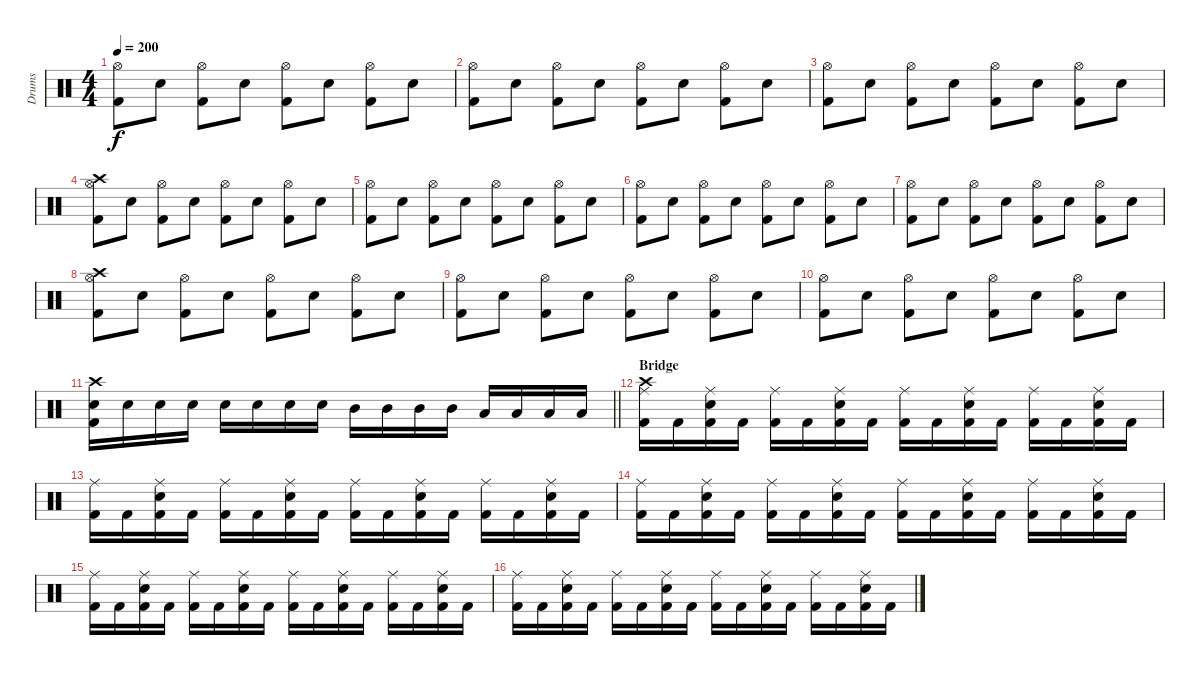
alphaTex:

\track ("Drums" "Drums") {instrument percussion}
\staff {score}
\articulation defaults
\ts (4 4)
\tempo 200
\clef neutral
\ks c
("Hi-Hat (open)" "Kick (hit) 2").8{dy f} "Snare (hit) 2".8 ("Hi-Hat (open)" "Kick (hit) 2").8 "Snare (hit) 2".8 ("Hi-Hat (open)" "Kick (hit) 2").8 "Snare (hit) 2".8 ("Hi-Hat (open)" "Kick (hit) 2").8 "Snare (hit) 2".8 |
("Hi-Hat (open)" "Kick (hit) 2").8 "Snare (hit) 2".8 ("Hi-Hat (open)" "Kick (hit) 2").8 "Snare (hit) 2".8 ("Hi-Hat (open)" "Kick (hit) 2").8 "Snare (hit) 2".8 ("Hi-Hat (open)" "Kick (hit) 2").8 "Snare (hit) 2".8 |
("Hi-Hat (open)" "Kick (hit) 2").8 "Snare (hit) 2".8 ("Hi-Hat (open)" "Kick (hit) 2").8 "Snare (hit) 2".8 ("Hi-Hat (open)" "Kick (hit) 2").8 "Snare (hit) 2".8 ("Hi-Hat (open)" "Kick (hit) 2").8 "Snare (hit) 2".8 |
("Crash high (hit)" "Hi-Hat (open)" "Kick (hit) 2").8 "Snare (hit) 2".8 ("Hi-Hat (open)" "Kick (hit) 2").8 "Snare (hit) 2".8 ("Hi-Hat (open)" "Kick (hit) 2").8 "Snare (hit) 2".8 ("Hi-Hat (open)" "Kick (hit) 2").8 "Snare (hit) 2".8 |
("Hi-Hat (open)" "Kick (hit) 2").8 "Snare (hit) 2".8 ("Hi-Hat (open)" "Kick (hit) 2").8 "Snare (hit) 2".8 ("Hi-Hat (open)" "Kick (hit) 2").8 "Snare (hit) 2".8 ("Hi-Hat (open)" "Kick (hit) 2").8 "Snare (hit) 2".8 |
("Hi-Hat (open)" "Kick (hit) 2").8 "Snare (hit) 2".8 ("Hi-Hat (open)" "Kick (hit) 2").8 "Snare (hit) 2".8 ("Hi-Hat (open)" "Kick (hit) 2").8 "Snare (hit) 2".8 ("Hi-Hat (open)" "Kick (hit) 2").8 "Snare (hit) 2".8 |
("Hi-Hat (open)" "Kick (hit) 2").8 "Snare (hit) 2".8 ("Hi-Hat (open)" "Kick (hit) 2").8 "Snare (hit) 2".8 ("Hi-Hat (open)" "Kick (hit) 2").8 "Snare (hit) 2".8 ("Hi-Hat (open)" "Kick (hit) 2").8 "Snare (hit) 2".8 |
("Crash high (hit)" "Hi-Hat (open)" "Kick (hit) 2").8 "Snare (hit) 2".8 ("Hi-Hat (open)" "Kick (hit) 2").8 "Snare (hit) 2".8 ("Hi-Hat (open)" "Kick (hit) 2").8 "Snare (hit) 2".8 ("Hi-Hat (open)" "Kick (hit) 2").8 "Snare (hit) 2".8 |
("Hi-Hat (open)" "Kick (hit) 2").8 "Snare (hit) 2".8 ("Hi-Hat (open)" "Kick (hit) 2").8 "Snare (hit) 2".8 ("Hi-Hat (open)" "Kick (hit) 2").8 "Snare (hit) 2".8 ("Hi-Hat (open)" "Kick (hit) 2").8 "Snare (hit) 2".8 |
("Hi-Hat (open)" "Kick (hit) 2").8 "Snare (hit) 2".8 ("Hi-Hat (open)" "Kick (hit) 2").8 "Snare (hit) 2".8 ("Hi-Hat (open)" "Kick (hit) 2").8 "Snare (hit) 2".8 ("Hi-Hat (open)" "Kick (hit) 2").8 "Snare (hit) 2".8 |
\barLineRight lightlight
("Crash high (hit)" "Snare (hit) 2" "Kick (hit) 2").16 "Snare (hit) 2".16 "Snare (hit) 2".16 "Snare (hit) 2".16 "Snare (hit) 2".16 "Snare (hit) 2".16 "Snare (hit) 2".16 "Snare (hit) 2".16 "Mid Tom (hit)".16 "Mid Tom (hit)".16 "Mid Tom (hit)".16 "Mid Tom (hit)".16 "Low Tom (hit)".16 "Low Tom (hit)".16 "Low Tom (hit)".16 "Low Tom (hit)".16 |
\section ("" "Bridge")
("Crash high (hit)" "Ride (middle)" "Kick (hit) 2").16 "Kick (hit) 2".16 ("Ride (middle)" "Snare (hit) 2" "Kick (hit) 2").16 "Kick (hit) 2".16 ("Ride (middle)" "Kick (hit) 2").16 "Kick (hit) 2".16 ("Ride (middle)" "Snare (hit) 2" "Kick (hit) 2").16 "Kick (hit) 2".16 ("Ride (middle)" "Kick (hit) 2").16 "Kick (hit) 2".16 ("Ride (middle)" "Snare (hit) 2" "Kick (hit) 2").16 "Kick (hit) 2".16 ("Ride (middle)" "Kick (hit) 2").16 "Kick (hit) 2".16 ("Ride (middle)" "Snare (hit) 2" "Kick (hit) 2").16 "Kick (hit) 2".16 |
("Ride (middle)" "Kick (hit) 2").16 "Kick (hit) 2".16 ("Ride (middle)" "Snare (hit) 2" "Kick (hit) 2").16 "Kick (hit) 2".16 ("Ride (middle)" "Kick (hit) 2").16 "Kick (hit) 2".16 ("Ride (middle)" "Snare (hit) 2" "Kick (hit) 2").16 "Kick (hit) 2".16 ("Ride (middle)" "Kick (hit) 2").16 "Kick (hit) 2".16 ("Ride (middle)" "Snare (hit) 2" "Kick (hit) 2").16 "Kick (hit) 2".16 ("Ride (middle)" "Kick (hit) 2").16 "Kick (hit) 2".16 ("Ride (middle)" "Snare (hit) 2" "Kick (hit) 2").16 "Kick (hit) 2".16 |
("Ride (middle)" "Kick (hit) 2").16 "Kick (hit) 2".16 ("Ride (middle)" "Snare (hit) 2" "Kick (hit) 2").16 "Kick (hit) 2".16 ("Ride (middle)" "Kick (hit) 2").16 "Kick (hit) 2".16 ("Ride (middle)" "Snare (hit) 2" "Kick (hit) 2").16 "Kick (hit) 2".16 ("Ride (middle)" "Kick (hit) 2").16 "Kick (hit) 2".16 ("Ride (middle)" "Snare (hit) 2" "Kick (hit) 2").16 "Kick (hit) 2".16 ("Ride (middle)" "Kick (hit) 2").16 "Kick (hit) 2".16 ("Ride (middle)" "Snare (hit) 2" "Kick (hit) 2").16 "Kick (hit) 2".16 |
("Ride (middle)" "Kick (hit) 2").16 "Kick (hit) 2".16 ("Ride (middle)" "Snare (hit) 2" "Kick (hit) 2").16 "Kick (hit) 2".16 ("Ride (middle)" "Kick (hit) 2").16 "Kick (hit) 2".16 ("Ride (middle)" "Snare (hit) 2" "Kick (hit) 2").16 "Kick (hit) 2".16 ("Ride (middle)" "Kick (hit) 2").16 "Kick (hit) 2".16 ("Ride (middle)" "Snare (hit) 2" "Kick (hit) 2").16 "Kick (hit) 2".16 ("Ride (middle)" "Kick (hit) 2").16 "Kick (hit) 2".16 ("Ride (middle)" "Snare (hit) 2" "Kick (hit) 2").16 "Kick (hit) 2".16 |
("Ride (middle)" "Kick (hit) 2").16 "Kick (hit) 2".16 ("Ride (middle)" "Snare (hit) 2" "Kick (hit) 2").16 "Kick (hit) 2".16 ("Ride (middle)" "Kick (hit) 2").16 "Kick (hit) 2".16 ("Ride (middle)" "Snare (hit) 2" "Kick (hit) 2").16 "Kick (hit) 2".16 ("Ride (middle)" "Kick (hit) 2").16 "Kick (hit) 2".16 ("Ride (middle)" "Snare (hit) 2" "Kick (hit) 2").16 "Kick (hit) 2".16 ("Ride (middle)" "Kick (hit) 2").16 "Kick (hit) 2".16 ("Ride (middle)" "Snare (hit) 2" "Kick (hit) 2").16 "Kick (hit) 2".16
